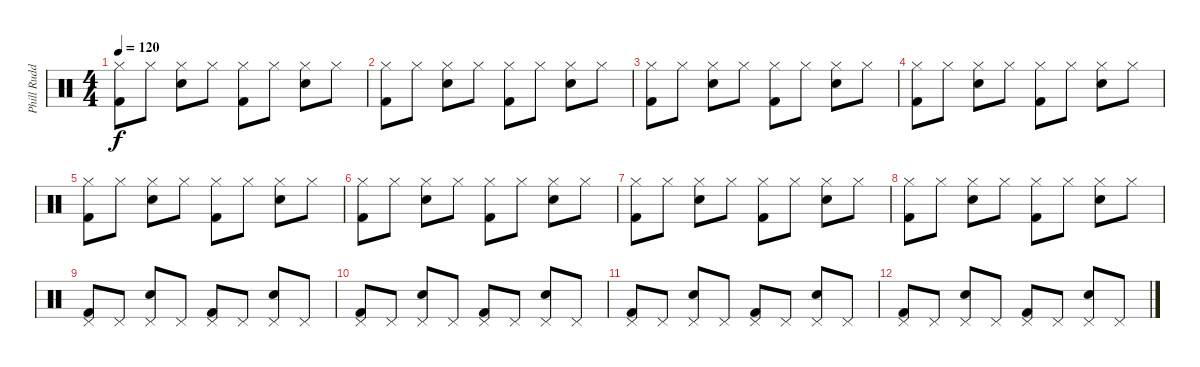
\track ("Phill Rudd" "Phill Rudd") {instrument percussion}
\staff {score}
\articulation defaults
\ts (4 4)
\tempo 120
\clef neutral
\ks c
("Hi-Hat (closed)" "Kick (hit) 2").8{dy f} "Hi-Hat (closed)".8 ("Hi-Hat (closed)" "Electric Snare (hit)").8 "Hi-Hat (closed)".8 ("Hi-Hat (closed)" "Kick (hit) 2").8 "Hi-Hat (closed)".8 ("Hi-Hat (closed)" "Electric Snare (hit)").8 "Hi-Hat (closed)".8 |
("Hi-Hat (closed)" "Kick (hit) 2").8 "Hi-Hat (closed)".8 ("Hi-Hat (closed)" "Electric Snare (hit)").8 "Hi-Hat (closed)".8 ("Hi-Hat (closed)" "Kick (hit) 2").8 "Hi-Hat (closed)".8 ("Hi-Hat (closed)" "Electric Snare (hit)").8 "Hi-Hat (closed)".8 |
("Hi-Hat (closed)" "Kick (hit) 2").8 "Hi-Hat (closed)".8 ("Hi-Hat (closed)" "Electric Snare (hit)").8 "Hi-Hat (closed)".8 ("Hi-Hat (closed)" "Kick (hit) 2").8 "Hi-Hat (closed)".8 ("Hi-Hat (closed)" "Electric Snare (hit)").8 "Hi-Hat (closed)".8 |
("Hi-Hat (closed)" "Kick (hit) 2").8 "Hi-Hat (closed)".8 ("Hi-Hat (closed)" "Electric Snare (hit)").8 "Hi-Hat (closed)".8 ("Hi-Hat (closed)" "Kick (hit) 2").8 "Hi-Hat (closed)".8 ("Hi-Hat (closed)" "Electric Snare (hit)").8 "Hi-Hat (closed)".8 |
("Hi-Hat (closed)" "Kick (hit) 2").8 "Hi-Hat (closed)".8 ("Hi-Hat (closed)" "Electric Snare (hit)").8 "Hi-Hat (closed)".8 ("Hi-Hat (closed)" "Kick (hit) 2").8 "Hi-Hat (closed)".8 ("Hi-Hat (closed)" "Electric Snare (hit)").8 "Hi-Hat (closed)".8 |
("Hi-Hat (closed)" "Kick (hit) 2").8 "Hi-Hat (closed)".8 ("Hi-Hat (closed)" "Electric Snare (hit)").8 "Hi-Hat (closed)".8 ("Hi-Hat (closed)" "Kick (hit) 2").8 "Hi-Hat (closed)".8 ("Hi-Hat (closed)" "Electric Snare (hit)").8 "Hi-Hat (closed)".8 |
("Hi-Hat (closed)" "Kick (hit) 2").8 "Hi-Hat (closed)".8 ("Hi-Hat (closed)" "Electric Snare (hit)").8 "Hi-Hat (closed)".8 ("Hi-Hat (closed)" "Kick (hit) 2").8 "Hi-Hat (closed)".8 ("Hi-Hat (closed)" "Electric Snare (hit)").8 "Hi-Hat (closed)".8 |
("Hi-Hat (closed)" "Kick (hit) 2").8 "Hi-Hat (closed)".8 ("Hi-Hat (closed)" "Electric Snare (hit)").8 "Hi-Hat (closed)".8 ("Hi-Hat (closed)" "Kick (hit) 2").8 "Hi-Hat (closed)".8 ("Hi-Hat (closed)" "Electric Snare (hit)").8 "Hi-Hat (closed)".8 |
("Pedal Hi-Hat (hit)" "Kick (hit) 2").8 "Pedal Hi-Hat (hit)".8 ("Pedal Hi-Hat (hit)" "Electric Snare (hit)").8 "Pedal Hi-Hat (hit)".8 ("Pedal Hi-Hat (hit)" "Kick (hit) 2").8 "Pedal Hi-Hat (hit)".8 ("Pedal Hi-Hat (hit)" "Electric Snare (hit)").8 "Pedal Hi-Hat (hit)".8 |
("Pedal Hi-Hat (hit)" "Kick (hit) 2").8 "Pedal Hi-Hat (hit)".8 ("Pedal Hi-Hat (hit)" "Electric Snare (hit)").8 "Pedal Hi-Hat (hit)".8 ("Pedal Hi-Hat (hit)" "Kick (hit) 2").8 "Pedal Hi-Hat (hit)".8 ("Pedal Hi-Hat (hit)" "Electric Snare (hit)").8 "Pedal Hi-Hat (hit)".8 |
("Pedal Hi-Hat (hit)" "Kick (hit) 2").8 "Pedal Hi-Hat (hit)".8 ("Pedal Hi-Hat (hit)" "Electric Snare (hit)").8 "Pedal Hi-Hat (hit)".8 ("Pedal Hi-Hat (hit)" "Kick (hit) 2").8 "Pedal Hi-Hat (hit)".8 ("Pedal Hi-Hat (hit)" "Electric Snare (hit)").8 "Pedal Hi-Hat (hit)".8 |
("Pedal Hi-Hat (hit)" "Kick (hit) 2").8 "Pedal Hi-Hat (hit)".8 ("Pedal Hi-Hat (hit)" "Electric Snare (hit)").8 "Pedal Hi-Hat (hit)".8 ("Pedal Hi-Hat (hit)" "Kick (hit) 2").8 "Pedal Hi-Hat (hit)".8 ("Pedal Hi-Hat (hit)" "Electric Snare (hit)").8 "Pedal Hi-Hat (hit)".8
